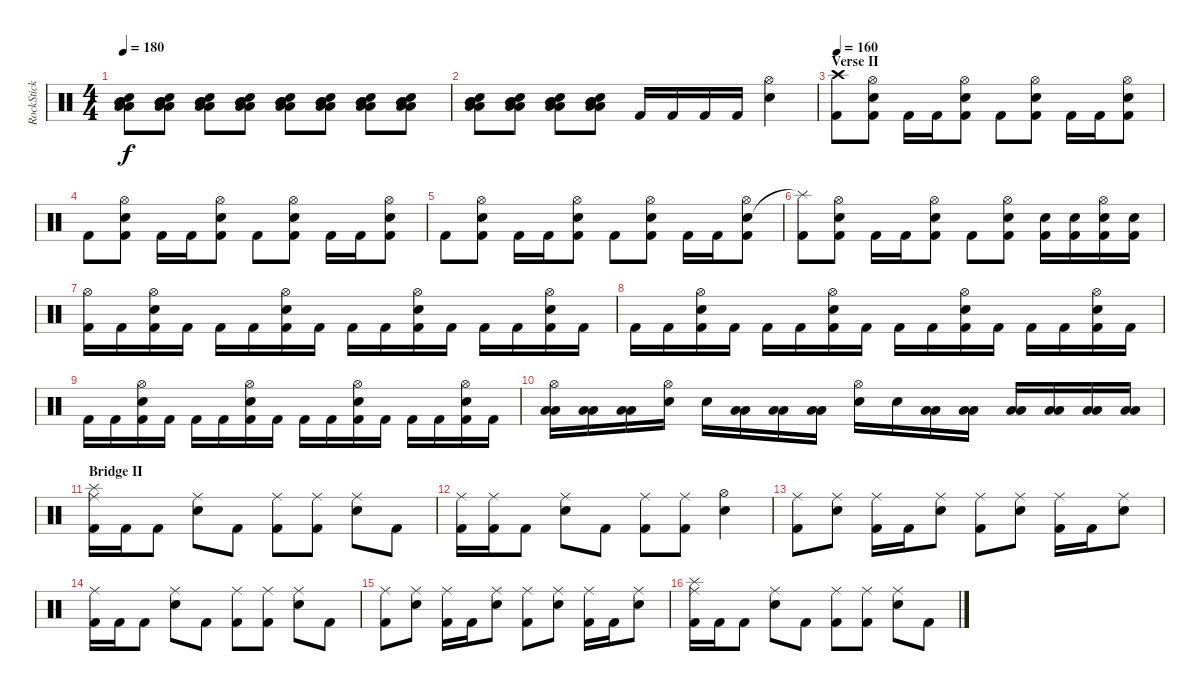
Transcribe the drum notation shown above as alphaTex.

\track ("RockStick" "RockStick") {instrument percussion}
\staff {score}
\articulation defaults
\ts (4 4)
\tempo 180
\clef neutral
\ks c
("Low Floor Tom (hit)" "Low Floor Tom (hit)" "Mid Tom (hit)" "Mid Tom (hit)" "Electric Snare (hit)").8{dy f volume 3} ("Low Floor Tom (hit)" "Low Floor Tom (hit)" "Mid Tom (hit)" "Mid Tom (hit)" "Electric Snare (hit)").8{volume 15} ("Low Floor Tom (hit)" "Low Floor Tom (hit)" "Mid Tom (hit)" "Mid Tom (hit)" "Electric Snare (hit)").8 ("Low Floor Tom (hit)" "Low Floor Tom (hit)" "Mid Tom (hit)" "Mid Tom (hit)" "Electric Snare (hit)").8 ("Low Floor Tom (hit)" "Low Floor Tom (hit)" "Mid Tom (hit)" "Mid Tom (hit)" "Electric Snare (hit)").8 ("Low Floor Tom (hit)" "Low Floor Tom (hit)" "Mid Tom (hit)" "Mid Tom (hit)" "Electric Snare (hit)").8 ("Low Floor Tom (hit)" "Low Floor Tom (hit)" "Mid Tom (hit)" "Mid Tom (hit)" "Electric Snare (hit)").8 ("Low Floor Tom (hit)" "Low Floor Tom (hit)" "Mid Tom (hit)" "Mid Tom (hit)" "Electric Snare (hit)").8 |
("Low Floor Tom (hit)" "Low Floor Tom (hit)" "Mid Tom (hit)" "Mid Tom (hit)" "Electric Snare (hit)").8 ("Low Floor Tom (hit)" "Low Floor Tom (hit)" "Mid Tom (hit)" "Mid Tom (hit)" "Electric Snare (hit)").8 ("Low Floor Tom (hit)" "Low Floor Tom (hit)" "Mid Tom (hit)" "Mid Tom (hit)" "Electric Snare (hit)").8 ("Low Floor Tom (hit)" "Low Floor Tom (hit)" "Mid Tom (hit)" "Mid Tom (hit)" "Electric Snare (hit)").8 "Kick (hit) 2".16 "Kick (hit) 2".16 "Kick (hit) 2".16 "Kick (hit) 2".16 ("Electric Snare (hit)" "Hi-Hat (open)").4 |
\section ("" "Verse II")
\tempo 160
("Kick (hit) 2" "Crash high (hit)").8 ("Kick (hit) 2" "Electric Snare (hit)" "Hi-Hat (open)").8 "Kick (hit) 2".16 "Kick (hit) 2".16 ("Kick (hit) 2" "Electric Snare (hit)" "Hi-Hat (open)").8 "Kick (hit) 2".8 ("Kick (hit) 2" "Electric Snare (hit)" "Hi-Hat (open)").8 "Kick (hit) 2".16 "Kick (hit) 2".16 ("Kick (hit) 2" "Electric Snare (hit)" "Hi-Hat (open)").8 |
"Kick (hit) 2".8 ("Kick (hit) 2" "Electric Snare (hit)" "Hi-Hat (open)").8 "Kick (hit) 2".16 "Kick (hit) 2".16 ("Kick (hit) 2" "Electric Snare (hit)" "Hi-Hat (open)").8 "Kick (hit) 2".8 ("Kick (hit) 2" "Electric Snare (hit)" "Hi-Hat (open)").8 "Kick (hit) 2".16 "Kick (hit) 2".16 ("Kick (hit) 2" "Electric Snare (hit)" "Hi-Hat (open)").8 |
"Kick (hit) 2".8 ("Kick (hit) 2" "Electric Snare (hit)" "Hi-Hat (open)").8 "Kick (hit) 2".16 "Kick (hit) 2".16 ("Kick (hit) 2" "Electric Snare (hit)" "Hi-Hat (open)").8 "Kick (hit) 2".8 ("Kick (hit) 2" "Electric Snare (hit)" "Hi-Hat (open)").8 "Kick (hit) 2".16 "Kick (hit) 2".16 ("Kick (hit) 2" "Electric Snare (hit)" "Hi-Hat (open)").8 |
("Kick (hit) 2" "Splash (hit)"{t}).8 ("Kick (hit) 2" "Electric Snare (hit)" "Hi-Hat (open)").8 "Kick (hit) 2".16 "Kick (hit) 2".16 ("Kick (hit) 2" "Electric Snare (hit)" "Hi-Hat (open)").8 "Kick (hit) 2".8 ("Kick (hit) 2" "Electric Snare (hit)" "Hi-Hat (open)").8 ("Kick (hit) 2" "Electric Snare (hit)").16 ("Kick (hit) 2" "Electric Snare (hit)").16 ("Kick (hit) 2" "Electric Snare (hit)" "Hi-Hat (open)").16 ("Kick (hit) 2" "Electric Snare (hit)").16 |
("Kick (hit) 2" "Hi-Hat (open)").16 "Kick (hit) 2".16 ("Electric Snare (hit)" "Kick (hit) 2" "Hi-Hat (open)").16 "Kick (hit) 2".16 "Kick (hit) 2".16 "Kick (hit) 2".16 ("Electric Snare (hit)" "Kick (hit) 2" "Hi-Hat (open)").16 "Kick (hit) 2".16 "Kick (hit) 2".16 "Kick (hit) 2".16 ("Electric Snare (hit)" "Kick (hit) 2" "Hi-Hat (open)").16 "Kick (hit) 2".16 "Kick (hit) 2".16 "Kick (hit) 2".16 ("Electric Snare (hit)" "Kick (hit) 2" "Hi-Hat (open)").16 "Kick (hit) 2".16 |
"Kick (hit) 2".16 "Kick (hit) 2".16 ("Electric Snare (hit)" "Kick (hit) 2" "Hi-Hat (open)").16 "Kick (hit) 2".16 "Kick (hit) 2".16 "Kick (hit) 2".16 ("Electric Snare (hit)" "Kick (hit) 2" "Hi-Hat (open)").16 "Kick (hit) 2".16 "Kick (hit) 2".16 "Kick (hit) 2".16 ("Electric Snare (hit)" "Kick (hit) 2" "Hi-Hat (open)").16 "Kick (hit) 2".16 "Kick (hit) 2".16 "Kick (hit) 2".16 ("Electric Snare (hit)" "Kick (hit) 2" "Hi-Hat (open)").16 "Kick (hit) 2".16 |
"Kick (hit) 2".16 "Kick (hit) 2".16 ("Electric Snare (hit)" "Kick (hit) 2" "Hi-Hat (open)").16 "Kick (hit) 2".16 "Kick (hit) 2".16 "Kick (hit) 2".16 ("Electric Snare (hit)" "Kick (hit) 2" "Hi-Hat (open)").16 "Kick (hit) 2".16 "Kick (hit) 2".16 "Kick (hit) 2".16 ("Electric Snare (hit)" "Kick (hit) 2" "Hi-Hat (open)").16 "Kick (hit) 2".16 "Kick (hit) 2".16 "Kick (hit) 2".16 ("Electric Snare (hit)" "Kick (hit) 2" "Hi-Hat (open)").16 "Kick (hit) 2".16 |
("Low Tom (hit)" "Low Tom (hit)" "Hi-Hat (open)").16 ("Low Tom (hit)" "Low Tom (hit)").16 ("Low Tom (hit)" "Low Tom (hit)").16 ("Electric Snare (hit)" "Hi-Hat (open)").16 "Electric Snare (hit)".16 ("Low Tom (hit)" "Low Tom (hit)").16 ("Low Tom (hit)" "Low Tom (hit)").16 ("Low Tom (hit)" "Low Tom (hit)").16 ("Electric Snare (hit)" "Hi-Hat (open)").16 "Electric Snare (hit)".16 ("Low Tom (hit)" "Low Tom (hit)").16 ("Low Tom (hit)" "Low Tom (hit)").16 ("Low Floor Tom (hit)" "Low Floor Tom (hit)").16 ("Low Floor Tom (hit)" "Low Floor Tom (hit)").16 ("Low Floor Tom (hit)" "Low Floor Tom (hit)").16 ("Low Floor Tom (hit)" "Low Floor Tom (hit)").16 |
\section ("" "Bridge II")
("Kick (hit) 2" "Ride (middle)" "Splash (hit)").16 "Kick (hit) 2".16 "Kick (hit) 2".8 ("Electric Snare (hit)" "Ride (middle)").8 "Kick (hit) 2".8 ("Kick (hit) 2" "Ride (middle)").8 ("Kick (hit) 2" "Ride (middle)").8 ("Electric Snare (hit)" "Ride (middle)").8 "Kick (hit) 2".8 |
("Kick (hit) 2" "Ride (middle)").16 ("Kick (hit) 2" "Ride (middle)").16 "Kick (hit) 2".8 ("Electric Snare (hit)" "Ride (middle)").8 "Kick (hit) 2".8 ("Kick (hit) 2" "Ride (middle)").8 ("Kick (hit) 2" "Ride (middle)").8 ("Electric Snare (hit)" "Hi-Hat (open)").4 |
("Kick (hit) 2" "Ride (middle)").8 ("Electric Snare (hit)" "Ride (middle)").8 ("Kick (hit) 2" "Ride (middle)").16 "Kick (hit) 2".16 ("Electric Snare (hit)" "Ride (middle)").8 ("Kick (hit) 2" "Ride (middle)").8 ("Electric Snare (hit)" "Ride (middle)").8 ("Kick (hit) 2" "Ride (middle)").16 "Kick (hit) 2".16 ("Electric Snare (hit)" "Ride (middle)").8 |
("Kick (hit) 2" "Ride (middle)").16 "Kick (hit) 2".16 "Kick (hit) 2".8 ("Electric Snare (hit)" "Ride (middle)").8 "Kick (hit) 2".8 ("Kick (hit) 2" "Ride (middle)").8 ("Kick (hit) 2" "Ride (middle)").8 ("Electric Snare (hit)" "Ride (middle)").8 "Kick (hit) 2".8 |
("Kick (hit) 2" "Ride (middle)").8 ("Electric Snare (hit)" "Ride (middle)").8 ("Kick (hit) 2" "Ride (middle)").16 "Kick (hit) 2".16 ("Electric Snare (hit)" "Ride (middle)").8 ("Kick (hit) 2" "Ride (middle)").8 ("Electric Snare (hit)" "Ride (middle)").8 ("Kick (hit) 2" "Ride (middle)").16 "Kick (hit) 2".16 ("Electric Snare (hit)" "Ride (middle)").8 |
("Kick (hit) 2" "Ride (middle)" "Splash (hit)").16 "Kick (hit) 2".16 "Kick (hit) 2".8 ("Electric Snare (hit)" "Ride (middle)").8 "Kick (hit) 2".8 ("Kick (hit) 2" "Ride (middle)").8 ("Kick (hit) 2" "Ride (middle)").8 ("Electric Snare (hit)" "Ride (middle)").8 "Kick (hit) 2".8
